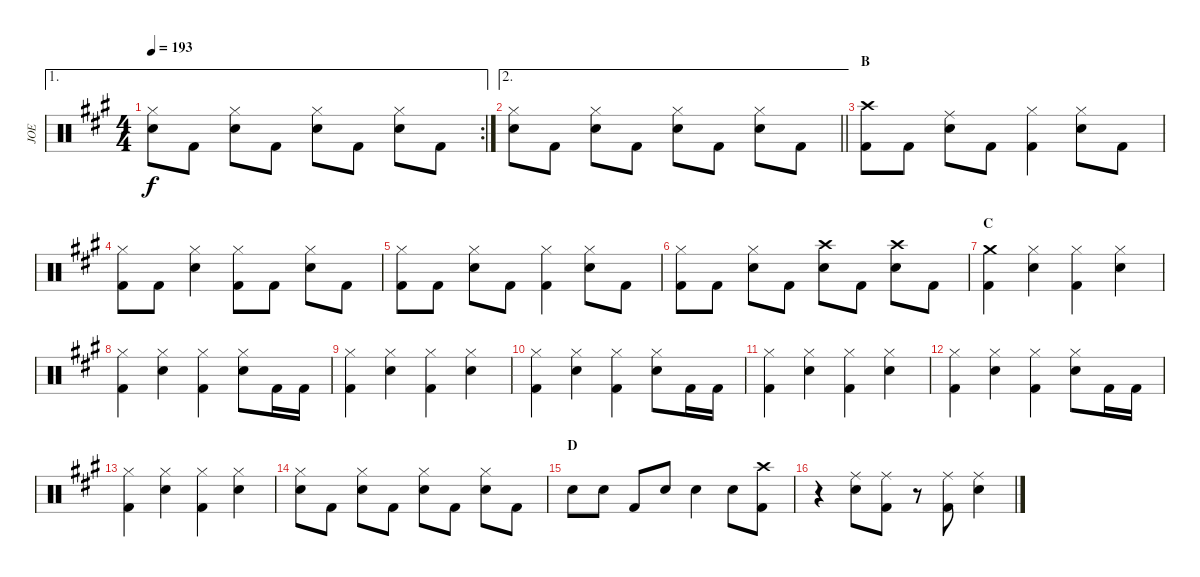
\track ("JOE" "JOE") {instrument percussion}
\staff {score}
\articulation defaults
\ae 1
\rc 2
\ts (4 4)
\tempo 193
\clef neutral
\ks a
("Hi-Hat (closed)" "Snare (hit) 2").8{dy f} "Kick (hit) 2".8 ("Hi-Hat (closed)" "Snare (hit) 2").8 "Kick (hit) 2".8 ("Hi-Hat (closed)" "Snare (hit) 2").8 "Kick (hit) 2".8 ("Hi-Hat (closed)" "Snare (hit) 2").8 "Kick (hit) 2".8 |
\ae 2
\barLineRight lightlight
("Hi-Hat (closed)" "Snare (hit) 2").8 "Kick (hit) 2".8 ("Hi-Hat (closed)" "Snare (hit) 2").8 "Kick (hit) 2".8 ("Hi-Hat (closed)" "Snare (hit) 2").8 "Kick (hit) 2".8 ("Hi-Hat (closed)" "Snare (hit) 2").8 "Kick (hit) 2".8 |
\section ("" "B")
("Crash high (hit)" "Kick (hit) 2").8 "Kick (hit) 2".8 ("Ride (middle)" "Snare (hit) 2").8 "Kick (hit) 2".8 ("Hi-Hat (closed)" "Kick (hit) 2").4 ("Hi-Hat (closed)" "Snare (hit) 2").8 "Kick (hit) 2".8 |
("Hi-Hat (closed)" "Kick (hit) 2").8 "Kick (hit) 2".8 ("Hi-Hat (closed)" "Snare (hit) 2").4 ("Hi-Hat (closed)" "Kick (hit) 2").8 "Kick (hit) 2".8 ("Hi-Hat (closed)" "Snare (hit) 2").8 "Kick (hit) 2".8 |
("Hi-Hat (closed)" "Kick (hit) 2").8 "Kick (hit) 2".8 ("Hi-Hat (closed)" "Snare (hit) 2").8 "Kick (hit) 2".8 ("Hi-Hat (closed)" "Kick (hit) 2").4 ("Hi-Hat (closed)" "Snare (hit) 2").8 "Kick (hit) 2".8 |
("Hi-Hat (closed)" "Kick (hit) 2").8 "Kick (hit) 2".8 ("Hi-Hat (closed)" "Snare (hit) 2").8 "Kick (hit) 2".8 ("Crash high (hit)" "Snare (hit) 2").8 "Kick (hit) 2".8 ("Crash high (hit)" "Snare (hit) 2").8 "Kick (hit) 2".8 |
\section ("" "C")
("Crash medium (hit)" "Kick (hit) 2").4 ("Hi-Hat (closed)" "Snare (hit) 2").4 ("Hi-Hat (closed)" "Kick (hit) 2").4 ("Hi-Hat (closed)" "Snare (hit) 2").4 |
("Hi-Hat (closed)" "Kick (hit) 2").4 ("Hi-Hat (closed)" "Snare (hit) 2").4 ("Hi-Hat (closed)" "Kick (hit) 2").4 ("Hi-Hat (closed)" "Snare (hit) 2").8 "Kick (hit) 2".16 "Kick (hit) 2".16 |
("Hi-Hat (closed)" "Kick (hit) 2").4 ("Hi-Hat (closed)" "Snare (hit) 2").4 ("Hi-Hat (closed)" "Kick (hit) 2").4 ("Hi-Hat (closed)" "Snare (hit) 2").4 |
("Hi-Hat (closed)" "Kick (hit) 2").4 ("Hi-Hat (closed)" "Snare (hit) 2").4 ("Hi-Hat (closed)" "Kick (hit) 2").4 ("Hi-Hat (closed)" "Snare (hit) 2").8 "Kick (hit) 2".16 "Kick (hit) 2".16 |
("Hi-Hat (closed)" "Kick (hit) 2").4 ("Hi-Hat (closed)" "Snare (hit) 2").4 ("Hi-Hat (closed)" "Kick (hit) 2").4 ("Hi-Hat (closed)" "Snare (hit) 2").4 |
("Hi-Hat (closed)" "Kick (hit) 2").4 ("Hi-Hat (closed)" "Snare (hit) 2").4 ("Hi-Hat (closed)" "Kick (hit) 2").4 ("Hi-Hat (closed)" "Snare (hit) 2").8 "Kick (hit) 2".16 "Kick (hit) 2".16 |
("Hi-Hat (closed)" "Kick (hit) 2").4 ("Hi-Hat (closed)" "Snare (hit) 2").4 ("Hi-Hat (closed)" "Kick (hit) 2").4 ("Hi-Hat (closed)" "Snare (hit) 2").4 |
("Hi-Hat (closed)" "Snare (hit) 2").8 "Kick (hit) 2".8 ("Hi-Hat (closed)" "Snare (hit) 2").8 "Kick (hit) 2".8 ("Hi-Hat (closed)" "Snare (hit) 2").8 "Kick (hit) 2".8 ("Hi-Hat (closed)" "Snare (hit) 2").8 "Kick (hit) 2".8 |
\section ("" "D")
"Snare (hit) 2".8 "Snare (hit) 2".8 "Kick (hit) 2".8 "Snare (hit) 2".8 "Snare (hit) 2".4 "Snare (hit) 2".8 ("Crash high (hit)" "Kick (hit) 2").8 |
r.4 ("Ride (middle)" "Snare (hit) 2").8 ("Ride (middle)" "Kick (hit) 2").8 r.8 ("Ride (middle)" "Kick (hit) 2").8 ("Ride (middle)" "Snare (hit) 2").4
